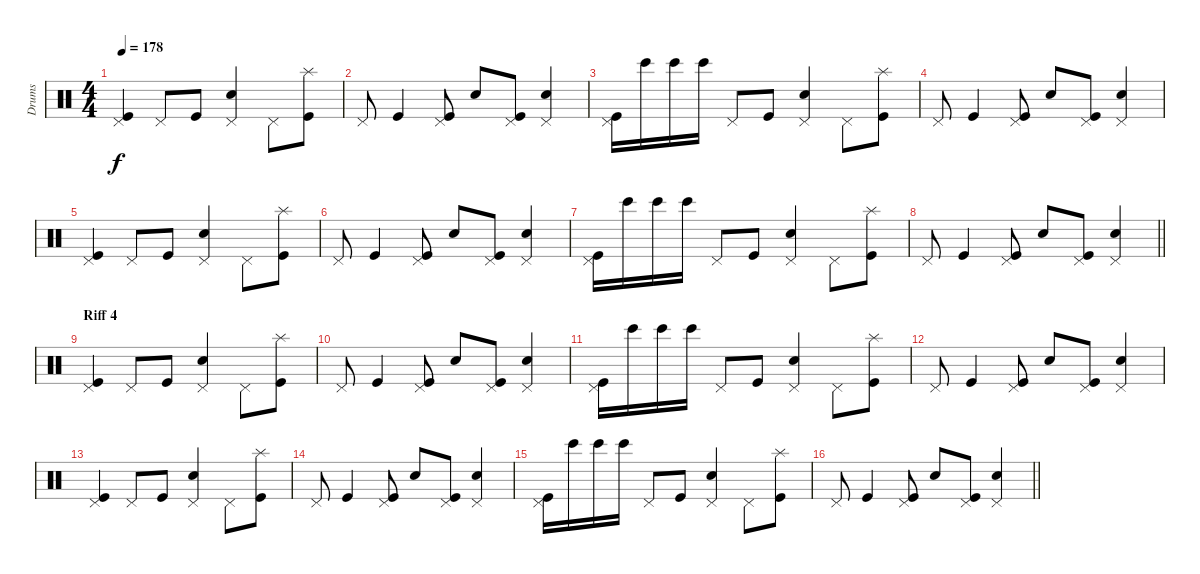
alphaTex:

\track ("Drums" "Drums") {instrument percussion}
\staff {score}
\articulation defaults
\ts (4 4)
\tempo 178
\clef neutral
\ks c
("Kick (hit)" "Pedal Hi-Hat (hit)").4{dy f} "Pedal Hi-Hat (hit)".8 "Kick (hit)".8 ("Electric Snare (hit)" "Pedal Hi-Hat (hit)").4 "Pedal Hi-Hat (hit)".8 ("Kick (hit)" "Splash (hit)").8 |
"Pedal Hi-Hat (hit)".8 "Kick (hit)".4 ("Kick (hit)" "Pedal Hi-Hat (hit)").8 "Electric Snare (hit)".8 ("Kick (hit)" "Pedal Hi-Hat (hit)").8 ("Electric Snare (hit)" "Pedal Hi-Hat (hit)").4 |
("Kick (hit)" "Pedal Hi-Hat (hit)").16 "Bongo High (hit)".16 "Bongo High (hit)".16 "Bongo High (hit)".16 "Pedal Hi-Hat (hit)".8 "Kick (hit)".8 ("Electric Snare (hit)" "Pedal Hi-Hat (hit)").4 "Pedal Hi-Hat (hit)".8 ("Kick (hit)" "Splash (hit)").8 |
"Pedal Hi-Hat (hit)".8 "Kick (hit)".4 ("Kick (hit)" "Pedal Hi-Hat (hit)").8 "Electric Snare (hit)".8 ("Kick (hit)" "Pedal Hi-Hat (hit)").8 ("Electric Snare (hit)" "Pedal Hi-Hat (hit)").4 |
("Kick (hit)" "Pedal Hi-Hat (hit)").4 "Pedal Hi-Hat (hit)".8 "Kick (hit)".8 ("Electric Snare (hit)" "Pedal Hi-Hat (hit)").4 "Pedal Hi-Hat (hit)".8 ("Kick (hit)" "Splash (hit)").8 |
"Pedal Hi-Hat (hit)".8 "Kick (hit)".4 ("Kick (hit)" "Pedal Hi-Hat (hit)").8 "Electric Snare (hit)".8 ("Kick (hit)" "Pedal Hi-Hat (hit)").8 ("Electric Snare (hit)" "Pedal Hi-Hat (hit)").4 |
("Kick (hit)" "Pedal Hi-Hat (hit)").16 "Bongo High (hit)".16 "Bongo High (hit)".16 "Bongo High (hit)".16 "Pedal Hi-Hat (hit)".8 "Kick (hit)".8 ("Electric Snare (hit)" "Pedal Hi-Hat (hit)").4 "Pedal Hi-Hat (hit)".8 ("Kick (hit)" "Splash (hit)").8 |
\barLineRight lightlight "Pedal Hi-Hat (hit)".8 "Kick (hit)".4
("Kick (hit)" "Pedal Hi-Hat (hit)").8 "Electric Snare (hit)".8 ("Kick (hit)" "Pedal Hi-Hat (hit)").8 ("Electric Snare (hit)" "Pedal Hi-Hat (hit)").4 |
\section ("" "Riff 4")
("Kick (hit)" "Pedal Hi-Hat (hit)").4 "Pedal Hi-Hat (hit)".8 "Kick (hit)".8 ("Electric Snare (hit)" "Pedal Hi-Hat (hit)").4 "Pedal Hi-Hat (hit)".8 ("Kick (hit)" "Splash (hit)").8 |
"Pedal Hi-Hat (hit)".8 "Kick (hit)".4 ("Kick (hit)" "Pedal Hi-Hat (hit)").8 "Electric Snare (hit)".8 ("Kick (hit)" "Pedal Hi-Hat (hit)").8 ("Electric Snare (hit)" "Pedal Hi-Hat (hit)").4 |
("Kick (hit)" "Pedal Hi-Hat (hit)").16 "Bongo High (hit)".16 "Bongo High (hit)".16 "Bongo High (hit)".16 "Pedal Hi-Hat (hit)".8 "Kick (hit)".8 ("Electric Snare (hit)" "Pedal Hi-Hat (hit)").4 "Pedal Hi-Hat (hit)".8 ("Kick (hit)" "Splash (hit)").8 |
"Pedal Hi-Hat (hit)".8 "Kick (hit)".4 ("Kick (hit)" "Pedal Hi-Hat (hit)").8 "Electric Snare (hit)".8 ("Kick (hit)" "Pedal Hi-Hat (hit)").8 ("Electric Snare (hit)" "Pedal Hi-Hat (hit)").4 |
("Kick (hit)" "Pedal Hi-Hat (hit)").4 "Pedal Hi-Hat (hit)".8 "Kick (hit)".8 ("Electric Snare (hit)" "Pedal Hi-Hat (hit)").4 "Pedal Hi-Hat (hit)".8 ("Kick (hit)" "Splash (hit)").8 |
"Pedal Hi-Hat (hit)".8 "Kick (hit)".4 ("Kick (hit)" "Pedal Hi-Hat (hit)").8 "Electric Snare (hit)".8 ("Kick (hit)" "Pedal Hi-Hat (hit)").8 ("Electric Snare (hit)" "Pedal Hi-Hat (hit)").4 |
("Kick (hit)" "Pedal Hi-Hat (hit)").16 "Bongo High (hit)".16 "Bongo High (hit)".16 "Bongo High (hit)".16 "Pedal Hi-Hat (hit)".8 "Kick (hit)".8 ("Electric Snare (hit)" "Pedal Hi-Hat (hit)").4 "Pedal Hi-Hat (hit)".8 ("Kick (hit)" "Splash (hit)").8 |
\barLineRight lightlight "Pedal Hi-Hat (hit)".8 "Kick (hit)".4
("Kick (hit)" "Pedal Hi-Hat (hit)").8 "Electric Snare (hit)".8 ("Kick (hit)" "Pedal Hi-Hat (hit)").8 ("Electric Snare (hit)" "Pedal Hi-Hat (hit)").4
